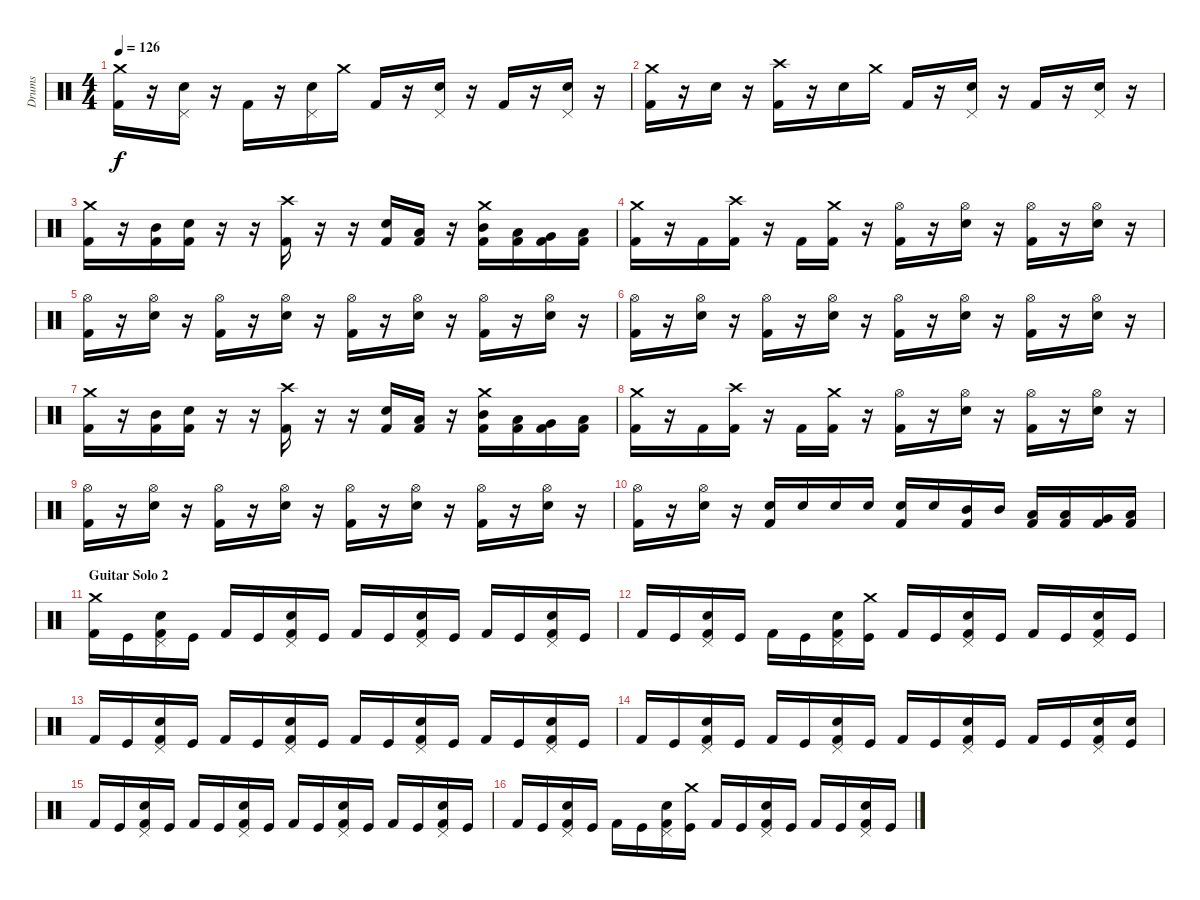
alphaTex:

\track ("Drums" "Drums") {instrument percussion}
\staff {score}
\articulation defaults
\ts (4 4)
\tempo 126
\clef neutral
\ks c
("Crash medium (hit)" "Kick (hit) 2").16{dy f} r.16 ("Pedal Hi-Hat (hit)" "Electric Snare (hit)").16 r.16 "Kick (hit) 2".16 r.16 ("Pedal Hi-Hat (hit)" "Electric Snare (hit)").16 "Crash medium (hit)".16 "Kick (hit) 2".16 r.16 ("Pedal Hi-Hat (hit)" "Electric Snare (hit)").16 r.16 "Kick (hit) 2".16 r.16 ("Pedal Hi-Hat (hit)" "Electric Snare (hit)").16 r.16 |
("Crash medium (hit)" "Kick (hit) 2").16 r.16 "Electric Snare (hit)".16 r.16 ("Crash high (hit)" "Kick (hit) 2").16 r.16 "Electric Snare (hit)".16 "Crash medium (hit)".16 "Kick (hit) 2".16 r.16 ("Pedal Hi-Hat (hit)" "Electric Snare (hit)").16 r.16 "Kick (hit) 2".16 r.16 ("Pedal Hi-Hat (hit)" "Electric Snare (hit)").16 r.16 |
("Crash medium (hit)" "Kick (hit) 2").16 r.16 ("Mid Tom (hit)" "Kick (hit) 2").16 ("Electric Snare (hit)" "Kick (hit) 2").16 r.16 r.16 ("Crash high (hit)" "Kick (hit) 2").16 r.16 r.16 ("Electric Snare (hit)" "Kick (hit) 2").16 ("Low Tom (hit)" "Kick (hit) 2").16 r.16 ("Crash medium (hit)" "Mid Tom (hit)" "Kick (hit) 2").16 ("Low Tom (hit)" "Kick (hit) 2").16 ("Very Low Tom (hit)" "Kick (hit) 2").16 ("Low Floor Tom (hit)" "Kick (hit) 2").16 |
("Crash medium (hit)" "Kick (hit) 2").16 r.16 "Kick (hit) 2".16 ("Crash high (hit)" "Kick (hit) 2").16 r.16 "Kick (hit) 2".16 ("Crash medium (hit)" "Kick (hit) 2").16 r.16 ("Hi-Hat (open)" "Kick (hit) 2").16 r.16 ("Hi-Hat (open)" "Electric Snare (hit)").16 r.16 ("Hi-Hat (open)" "Kick (hit) 2").16 r.16 ("Hi-Hat (open)" "Electric Snare (hit)").16 r.16 |
("Hi-Hat (open)" "Kick (hit) 2").16 r.16 ("Hi-Hat (open)" "Electric Snare (hit)").16 r.16 ("Hi-Hat (open)" "Kick (hit) 2").16 r.16 ("Hi-Hat (open)" "Electric Snare (hit)").16 r.16 ("Hi-Hat (open)" "Kick (hit) 2").16 r.16 ("Hi-Hat (open)" "Electric Snare (hit)").16 r.16 ("Hi-Hat (open)" "Kick (hit) 2").16 r.16 ("Hi-Hat (open)" "Electric Snare (hit)").16 r.16 |
("Hi-Hat (open)" "Kick (hit) 2").16 r.16 ("Hi-Hat (open)" "Electric Snare (hit)").16 r.16 ("Hi-Hat (open)" "Kick (hit) 2").16 r.16 ("Hi-Hat (open)" "Electric Snare (hit)").16 r.16 ("Hi-Hat (open)" "Kick (hit) 2").16 r.16 ("Hi-Hat (open)" "Electric Snare (hit)").16 r.16 ("Hi-Hat (open)" "Kick (hit) 2").16 r.16 ("Hi-Hat (open)" "Electric Snare (hit)").16 r.16 |
("Crash medium (hit)" "Kick (hit) 2").16 r.16 ("Mid Tom (hit)" "Kick (hit) 2").16 ("Electric Snare (hit)" "Kick (hit) 2").16 r.16 r.16 ("Crash high (hit)" "Kick (hit) 2").16 r.16 r.16 ("Electric Snare (hit)" "Kick (hit) 2").16 ("Low Tom (hit)" "Kick (hit) 2").16 r.16 ("Crash medium (hit)" "Mid Tom (hit)" "Kick (hit) 2").16 ("Low Tom (hit)" "Kick (hit) 2").16 ("Very Low Tom (hit)" "Kick (hit) 2").16 ("Low Floor Tom (hit)" "Kick (hit) 2").16 |
("Crash medium (hit)" "Kick (hit) 2").16 r.16 "Kick (hit) 2".16 ("Crash high (hit)" "Kick (hit) 2").16 r.16 "Kick (hit) 2".16 ("Crash medium (hit)" "Kick (hit) 2").16 r.16 ("Hi-Hat (open)" "Kick (hit) 2").16 r.16 ("Hi-Hat (open)" "Electric Snare (hit)").16 r.16 ("Hi-Hat (open)" "Kick (hit) 2").16 r.16 ("Hi-Hat (open)" "Electric Snare (hit)").16 r.16 |
("Hi-Hat (open)" "Kick (hit) 2").16 r.16 ("Hi-Hat (open)" "Electric Snare (hit)").16 r.16 ("Hi-Hat (open)" "Kick (hit) 2").16 r.16 ("Hi-Hat (open)" "Electric Snare (hit)").16 r.16 ("Hi-Hat (open)" "Kick (hit) 2").16 r.16 ("Hi-Hat (open)" "Electric Snare (hit)").16 r.16 ("Hi-Hat (open)" "Kick (hit) 2").16 r.16 ("Hi-Hat (open)" "Electric Snare (hit)").16 r.16 |
("Hi-Hat (open)" "Kick (hit) 2").16 r.16 ("Hi-Hat (open)" "Electric Snare (hit)").16 r.16 ("Electric Snare (hit)" "Kick (hit) 2").16 "Electric Snare (hit)".16 "Electric Snare (hit)".16 "Electric Snare (hit)".16 ("Electric Snare (hit)" "Kick (hit) 2").16 "Electric Snare (hit)".16 ("Mid Tom (hit)" "Kick (hit) 2").16 "Mid Tom (hit)".16 ("Low Tom (hit)" "Kick (hit) 2").16 ("Low Tom (hit)" "Kick (hit) 2").16 ("Very Low Tom (hit)" "Kick (hit) 2").16 ("Low Floor Tom (hit)" "Kick (hit) 2").16 |
\section ("" "Guitar Solo 2 ")
("Crash medium (hit)" "Kick (hit) 2").16 "Kick (hit)".16 ("Pedal Hi-Hat (hit)" "Electric Snare (hit)" "Kick (hit) 2").16 "Kick (hit)".16 "Kick (hit) 2".16 "Kick (hit)".16 ("Pedal Hi-Hat (hit)" "Electric Snare (hit)" "Kick (hit) 2").16 "Kick (hit)".16 "Kick (hit) 2".16 "Kick (hit)".16 ("Pedal Hi-Hat (hit)" "Electric Snare (hit)" "Kick (hit) 2").16 "Kick (hit)".16 "Kick (hit) 2".16 "Kick (hit)".16 ("Pedal Hi-Hat (hit)" "Electric Snare (hit)" "Kick (hit) 2").16 "Kick (hit)".16 |
"Kick (hit) 2".16 "Kick (hit)".16 ("Pedal Hi-Hat (hit)" "Electric Snare (hit)" "Kick (hit) 2").16 "Kick (hit)".16 "Kick (hit) 2".16 "Kick (hit)".16 ("Pedal Hi-Hat (hit)" "Electric Snare (hit)" "Kick (hit) 2").16 ("Crash medium (hit)" "Kick (hit)").16 "Kick (hit) 2".16 "Kick (hit)".16 ("Pedal Hi-Hat (hit)" "Electric Snare (hit)" "Kick (hit) 2").16 "Kick (hit)".16 "Kick (hit) 2".16 "Kick (hit)".16 ("Pedal Hi-Hat (hit)" "Electric Snare (hit)" "Kick (hit) 2").16 "Kick (hit)".16 |
"Kick (hit) 2".16 "Kick (hit)".16 ("Pedal Hi-Hat (hit)" "Electric Snare (hit)" "Kick (hit) 2").16 "Kick (hit)".16 "Kick (hit) 2".16 "Kick (hit)".16 ("Pedal Hi-Hat (hit)" "Electric Snare (hit)" "Kick (hit) 2").16 "Kick (hit)".16 "Kick (hit) 2".16 "Kick (hit)".16 ("Pedal Hi-Hat (hit)" "Electric Snare (hit)" "Kick (hit) 2").16 "Kick (hit)".16 "Kick (hit) 2".16 "Kick (hit)".16 ("Pedal Hi-Hat (hit)" "Electric Snare (hit)" "Kick (hit) 2").16 "Kick (hit)".16 |
"Kick (hit) 2".16 "Kick (hit)".16 ("Pedal Hi-Hat (hit)" "Electric Snare (hit)" "Kick (hit) 2").16 "Kick (hit)".16 "Kick (hit) 2".16 "Kick (hit)".16 ("Pedal Hi-Hat (hit)" "Electric Snare (hit)" "Kick (hit) 2").16 "Kick (hit)".16 "Kick (hit) 2".16 "Kick (hit)".16 ("Pedal Hi-Hat (hit)" "Electric Snare (hit)" "Kick (hit) 2").16 "Kick (hit)".16 "Kick (hit) 2".16 "Kick (hit)".16 ("Pedal Hi-Hat (hit)" "Electric Snare (hit)" "Kick (hit) 2").16 ("Electric Snare (hit)" "Kick (hit)").16 |
"Kick (hit) 2".16 "Kick (hit)".16 ("Pedal Hi-Hat (hit)" "Electric Snare (hit)" "Kick (hit) 2").16 "Kick (hit)".16 "Kick (hit) 2".16 "Kick (hit)".16 ("Pedal Hi-Hat (hit)" "Electric Snare (hit)" "Kick (hit) 2").16 "Kick (hit)".16 "Kick (hit) 2".16 "Kick (hit)".16 ("Pedal Hi-Hat (hit)" "Electric Snare (hit)" "Kick (hit) 2").16 "Kick (hit)".16 "Kick (hit) 2".16 "Kick (hit)".16 ("Pedal Hi-Hat (hit)" "Electric Snare (hit)" "Kick (hit) 2").16 "Kick (hit)".16 |
"Kick (hit) 2".16 "Kick (hit)".16 ("Pedal Hi-Hat (hit)" "Electric Snare (hit)" "Kick (hit) 2").16 "Kick (hit)".16 "Kick (hit) 2".16 "Kick (hit)".16 ("Pedal Hi-Hat (hit)" "Electric Snare (hit)" "Kick (hit) 2").16 ("Crash medium (hit)" "Kick (hit)").16 "Kick (hit) 2".16 "Kick (hit)".16 ("Pedal Hi-Hat (hit)" "Electric Snare (hit)" "Kick (hit) 2").16 "Kick (hit)".16 "Kick (hit) 2".16 "Kick (hit)".16 ("Pedal Hi-Hat (hit)" "Electric Snare (hit)" "Kick (hit) 2").16 "Kick (hit)".16
